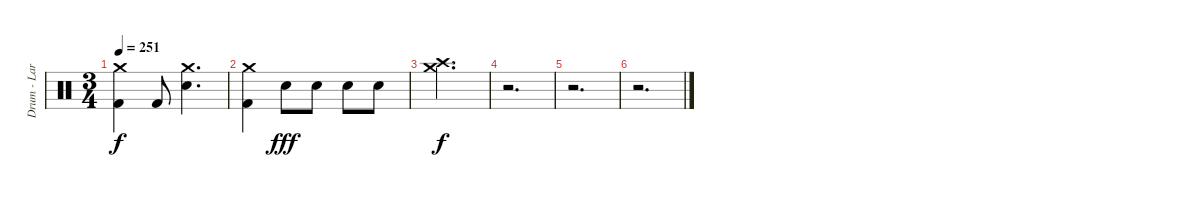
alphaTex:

\track ("Drum - Larzon" "Drum - Lar") {instrument percussion}
\staff {score}
\articulation defaults
\ts (3 4)
\tempo 251
\clef neutral
\ks c
("Kick (hit) 2" "Crash medium (hit)").4{dy f} "Kick (hit) 2".8 ("Snare (hit) 2" "Crash medium (hit)").4{d} |
("Kick (hit) 2" "Crash medium (hit)").4 "Electric Snare (hit)".8{dy fff} "Electric Snare (hit)".8 "Electric Snare (hit)".8 "Electric Snare (hit)".8 |
("Crash medium (hit)" "Crash high (hit)").2{d dy f} |
r.2{d} |
r.2{d} |
r.2{d}
